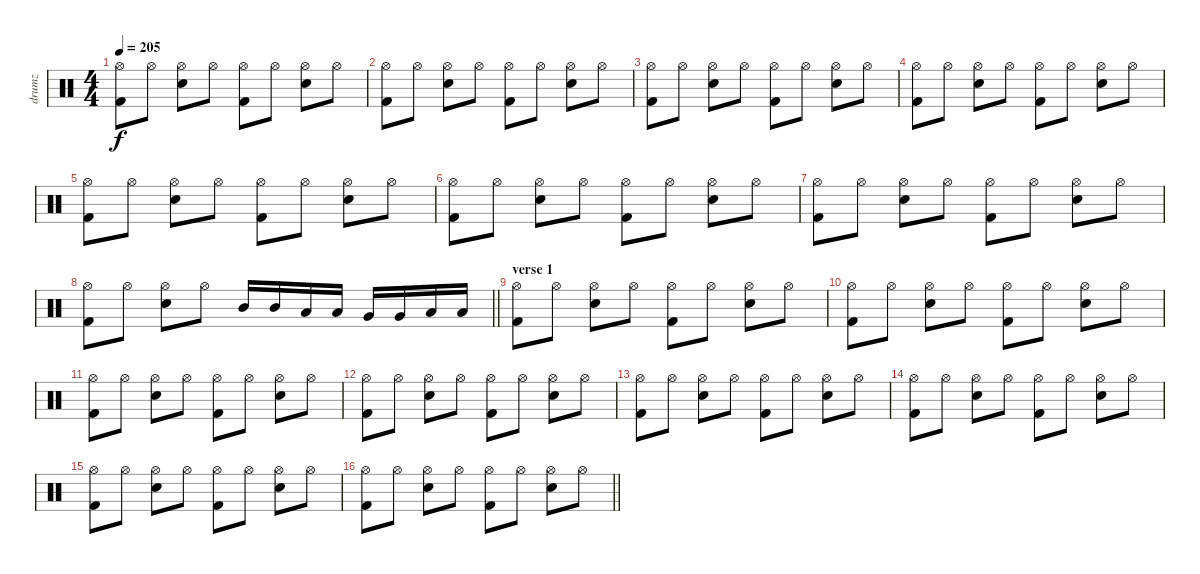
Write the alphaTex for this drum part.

\track ("drumz" "drumz") {instrument percussion}
\staff {score}
\articulation defaults
\ts (4 4)
\tempo 210
\tempo 205
\clef neutral
\ks c
("Hi-Hat (open)" "Kick (hit) 2").8{dy f} "Hi-Hat (open)".8 ("Hi-Hat (open)" "Electric Snare (hit)").8 "Hi-Hat (open)".8 ("Hi-Hat (open)" "Kick (hit) 2").8 "Hi-Hat (open)".8 ("Hi-Hat (open)" "Electric Snare (hit)").8 "Hi-Hat (open)".8 |
("Hi-Hat (open)" "Kick (hit) 2").8 "Hi-Hat (open)".8 ("Hi-Hat (open)" "Electric Snare (hit)").8 "Hi-Hat (open)".8 ("Hi-Hat (open)" "Kick (hit) 2").8 "Hi-Hat (open)".8 ("Hi-Hat (open)" "Electric Snare (hit)").8 "Hi-Hat (open)".8 |
("Hi-Hat (open)" "Kick (hit) 2").8 "Hi-Hat (open)".8 ("Hi-Hat (open)" "Electric Snare (hit)").8 "Hi-Hat (open)".8 ("Hi-Hat (open)" "Kick (hit) 2").8 "Hi-Hat (open)".8 ("Hi-Hat (open)" "Electric Snare (hit)").8 "Hi-Hat (open)".8 |
("Hi-Hat (open)" "Kick (hit) 2").8 "Hi-Hat (open)".8 ("Hi-Hat (open)" "Electric Snare (hit)").8 "Hi-Hat (open)".8 ("Hi-Hat (open)" "Kick (hit) 2").8 "Hi-Hat (open)".8 ("Hi-Hat (open)" "Electric Snare (hit)").8 "Hi-Hat (open)".8 |
("Hi-Hat (open)" "Kick (hit) 2").8 "Hi-Hat (open)".8 ("Hi-Hat (open)" "Electric Snare (hit)").8 "Hi-Hat (open)".8 ("Hi-Hat (open)" "Kick (hit) 2").8 "Hi-Hat (open)".8 ("Hi-Hat (open)" "Electric Snare (hit)").8 "Hi-Hat (open)".8 |
("Hi-Hat (open)" "Kick (hit) 2").8 "Hi-Hat (open)".8 ("Hi-Hat (open)" "Electric Snare (hit)").8 "Hi-Hat (open)".8 ("Hi-Hat (open)" "Kick (hit) 2").8 "Hi-Hat (open)".8 ("Hi-Hat (open)" "Electric Snare (hit)").8 "Hi-Hat (open)".8 |
("Hi-Hat (open)" "Kick (hit) 2").8 "Hi-Hat (open)".8 ("Hi-Hat (open)" "Electric Snare (hit)").8 "Hi-Hat (open)".8 ("Hi-Hat (open)" "Kick (hit) 2").8 "Hi-Hat (open)".8 ("Hi-Hat (open)" "Electric Snare (hit)").8 "Hi-Hat (open)".8 |
\barLineRight lightlight
("Hi-Hat (open)" "Kick (hit) 2").8 "Hi-Hat (open)".8 ("Hi-Hat (open)" "Electric Snare (hit)").8 "Hi-Hat (open)".8 "Mid Tom (hit)".16 "Mid Tom (hit)".16 "Low Tom (hit)".16 "Low Tom (hit)".16 "Very Low Tom (hit)".16 "Very Low Tom (hit)".16 "Low Floor Tom (hit)".16 "Low Floor Tom (hit)".16 |
\section ("" "verse 1")
("Hi-Hat (open)" "Kick (hit) 2").8 "Hi-Hat (open)".8 ("Hi-Hat (open)" "Electric Snare (hit)").8 "Hi-Hat (open)".8 ("Hi-Hat (open)" "Kick (hit) 2").8 "Hi-Hat (open)".8 ("Hi-Hat (open)" "Electric Snare (hit)").8 "Hi-Hat (open)".8 |
("Hi-Hat (open)" "Kick (hit) 2").8 "Hi-Hat (open)".8 ("Hi-Hat (open)" "Electric Snare (hit)").8 "Hi-Hat (open)".8 ("Hi-Hat (open)" "Kick (hit) 2").8 "Hi-Hat (open)".8 ("Hi-Hat (open)" "Electric Snare (hit)").8 "Hi-Hat (open)".8 |
("Hi-Hat (open)" "Kick (hit) 2").8 "Hi-Hat (open)".8 ("Hi-Hat (open)" "Electric Snare (hit)").8 "Hi-Hat (open)".8 ("Hi-Hat (open)" "Kick (hit) 2").8 "Hi-Hat (open)".8 ("Hi-Hat (open)" "Electric Snare (hit)").8 "Hi-Hat (open)".8 |
("Hi-Hat (open)" "Kick (hit) 2").8 "Hi-Hat (open)".8 ("Hi-Hat (open)" "Electric Snare (hit)").8 "Hi-Hat (open)".8 ("Hi-Hat (open)" "Kick (hit) 2").8 "Hi-Hat (open)".8 ("Hi-Hat (open)" "Electric Snare (hit)").8 "Hi-Hat (open)".8 |
("Hi-Hat (open)" "Kick (hit) 2").8 "Hi-Hat (open)".8 ("Hi-Hat (open)" "Electric Snare (hit)").8 "Hi-Hat (open)".8 ("Hi-Hat (open)" "Kick (hit) 2").8 "Hi-Hat (open)".8 ("Hi-Hat (open)" "Electric Snare (hit)").8 "Hi-Hat (open)".8 |
("Hi-Hat (open)" "Kick (hit) 2").8 "Hi-Hat (open)".8 ("Hi-Hat (open)" "Electric Snare (hit)").8 "Hi-Hat (open)".8 ("Hi-Hat (open)" "Kick (hit) 2").8 "Hi-Hat (open)".8 ("Hi-Hat (open)" "Electric Snare (hit)").8 "Hi-Hat (open)".8 |
("Hi-Hat (open)" "Kick (hit) 2").8 "Hi-Hat (open)".8 ("Hi-Hat (open)" "Electric Snare (hit)").8 "Hi-Hat (open)".8 ("Hi-Hat (open)" "Kick (hit) 2").8 "Hi-Hat (open)".8 ("Hi-Hat (open)" "Electric Snare (hit)").8 "Hi-Hat (open)".8 |
\barLineRight lightlight
("Hi-Hat (open)" "Kick (hit) 2").8 "Hi-Hat (open)".8 ("Hi-Hat (open)" "Electric Snare (hit)").8 "Hi-Hat (open)".8 ("Hi-Hat (open)" "Kick (hit) 2").8 "Hi-Hat (open)".8 ("Hi-Hat (open)" "Electric Snare (hit)").8 "Hi-Hat (open)".8
